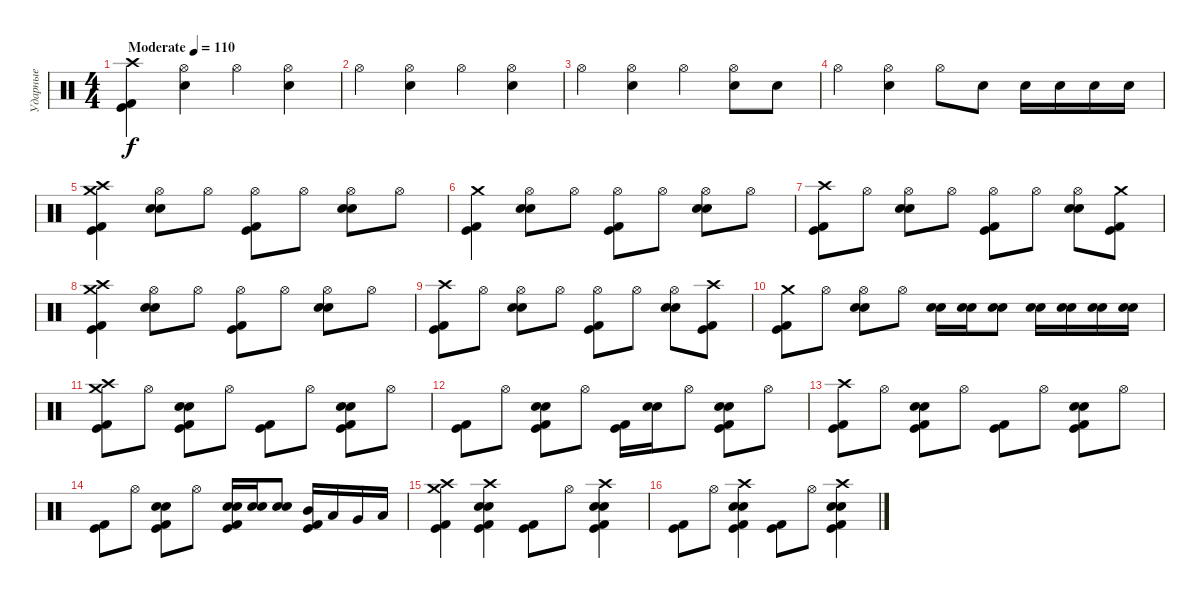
\track ("Ударные" "Ударные") {instrument percussion}
\staff {score}
\articulation defaults
\ts (4 4)
\tempo (110 "Moderate")
\clef neutral
\ks c
("Crash high (hit)" "Kick (hit) 2" "Kick (hit)").4{dy f} ("Hi-Hat (open)" "Electric Snare (hit)").4 "Hi-Hat (open)".4 ("Hi-Hat (open)" "Electric Snare (hit)").4 |
"Hi-Hat (open)".4 ("Hi-Hat (open)" "Electric Snare (hit)").4 "Hi-Hat (open)".4 ("Hi-Hat (open)" "Electric Snare (hit)").4 |
"Hi-Hat (open)".4 ("Hi-Hat (open)" "Electric Snare (hit)").4 "Hi-Hat (open)".4 ("Hi-Hat (open)" "Electric Snare (hit)").8 "Electric Snare (hit)".8 |
"Hi-Hat (open)".4 ("Hi-Hat (open)" "Electric Snare (hit)").4 "Hi-Hat (open)".8 "Electric Snare (hit)".8 "Electric Snare (hit)".16 "Electric Snare (hit)".16 "Electric Snare (hit)".16 "Electric Snare (hit)".16 |
("Crash high (hit)" "Kick (hit) 2" "Kick (hit)" "Crash medium (hit)").4 ("Hi-Hat (open)" "Snare (hit) 2" "Electric Snare (hit)").8 "Hi-Hat (open)".8 ("Hi-Hat (open)" "Kick (hit) 2" "Kick (hit)").8 "Hi-Hat (open)".8 ("Hi-Hat (open)" "Snare (hit) 2" "Electric Snare (hit)").8 "Hi-Hat (open)".8 |
("Crash medium (hit)" "Kick (hit) 2" "Kick (hit)").4 ("Hi-Hat (open)" "Snare (hit) 2" "Electric Snare (hit)").8 "Hi-Hat (open)".8 ("Hi-Hat (open)" "Kick (hit) 2" "Kick (hit)").8 "Hi-Hat (open)".8 ("Hi-Hat (open)" "Snare (hit) 2" "Electric Snare (hit)").8 "Hi-Hat (open)".8 |
("Crash high (hit)" "Kick (hit) 2" "Kick (hit)").8 "Hi-Hat (open)".8 ("Hi-Hat (open)" "Snare (hit) 2" "Electric Snare (hit)").8 "Hi-Hat (open)".8 ("Hi-Hat (open)" "Kick (hit) 2" "Kick (hit)").8 "Hi-Hat (open)".8 ("Hi-Hat (open)" "Snare (hit) 2" "Electric Snare (hit)").8 ("Crash medium (hit)" "Kick (hit)" "Kick (hit) 2").8 |
("Crash high (hit)" "Kick (hit) 2" "Kick (hit)" "Crash medium (hit)").4 ("Hi-Hat (open)" "Snare (hit) 2" "Electric Snare (hit)").8 "Hi-Hat (open)".8 ("Hi-Hat (open)" "Kick (hit) 2" "Kick (hit)").8 "Hi-Hat (open)".8 ("Hi-Hat (open)" "Snare (hit) 2" "Electric Snare (hit)").8 "Hi-Hat (open)".8 |
("Crash high (hit)" "Kick (hit) 2" "Kick (hit)").8 "Hi-Hat (open)".8 ("Hi-Hat (open)" "Snare (hit) 2" "Electric Snare (hit)").8 "Hi-Hat (open)".8 ("Hi-Hat (open)" "Kick (hit) 2" "Kick (hit)").8 "Hi-Hat (open)".8 ("Hi-Hat (open)" "Snare (hit) 2" "Electric Snare (hit)").8 ("Crash high (hit)" "Kick (hit) 2" "Kick (hit)").8 |
("Crash medium (hit)" "Kick (hit) 2" "Kick (hit)").8 "Hi-Hat (open)".8 ("Hi-Hat (open)" "Snare (hit) 2" "Electric Snare (hit)").8 "Hi-Hat (open)".8 ("Snare (hit) 2" "Electric Snare (hit)").16 ("Snare (hit) 2" "Electric Snare (hit)").16 ("Snare (hit) 2" "Electric Snare (hit)").8 ("Snare (hit) 2" "Electric Snare (hit)").16 ("Snare (hit) 2" "Electric Snare (hit)").16 ("Snare (hit) 2" "Electric Snare (hit)").16 ("Snare (hit) 2" "Electric Snare (hit)").16 |
("Crash high (hit)" "Kick (hit) 2" "Crash medium (hit)" "Kick (hit)").8 "Hi-Hat (open)".8 ("Snare (hit) 2" "Electric Snare (hit)" "Kick (hit)" "Kick (hit) 2").8 "Hi-Hat (open)".8 ("Kick (hit) 2" "Kick (hit)").8 "Hi-Hat (open)".8 ("Snare (hit) 2" "Electric Snare (hit)" "Kick (hit)" "Kick (hit) 2").8 "Hi-Hat (open)".8 |
("Kick (hit) 2" "Kick (hit)").8 "Hi-Hat (open)".8 ("Snare (hit) 2" "Electric Snare (hit)" "Kick (hit)" "Kick (hit) 2").8 "Hi-Hat (open)".8 ("Kick (hit) 2" "Kick (hit)").16 ("Snare (hit) 2" "Electric Snare (hit)").16 "Hi-Hat (open)".8 ("Snare (hit) 2" "Electric Snare (hit)" "Kick (hit)" "Kick (hit) 2").8 "Hi-Hat (open)".8 |
("Crash high (hit)" "Kick (hit) 2" "Kick (hit)").8 "Hi-Hat (open)".8 ("Snare (hit) 2" "Electric Snare (hit)" "Kick (hit)" "Kick (hit) 2").8 "Hi-Hat (open)".8 ("Kick (hit) 2" "Kick (hit)").8 "Hi-Hat (open)".8 ("Snare (hit) 2" "Electric Snare (hit)" "Kick (hit)" "Kick (hit) 2").8 "Hi-Hat (open)".8 |
("Kick (hit) 2" "Kick (hit)").8 "Hi-Hat (open)".8 ("Snare (hit) 2" "Electric Snare (hit)" "Kick (hit)" "Kick (hit) 2").8 "Hi-Hat (open)".8 ("Snare (hit) 2" "Electric Snare (hit)" "Kick (hit)" "Kick (hit) 2").16 ("Snare (hit) 2" "Electric Snare (hit)").16 ("Snare (hit) 2" "Electric Snare (hit)").8 ("Mid Tom (hit)" "Kick (hit)" "Kick (hit) 2").16 "Low Tom (hit)".16 "Very Low Tom (hit)".16 "Low Floor Tom (hit)".16 |
("Crash high (hit)" "Kick (hit)" "Kick (hit) 2" "Crash medium (hit)").4 ("Crash high (hit)" "Snare (hit) 2" "Electric Snare (hit)" "Kick (hit)" "Kick (hit) 2").4 ("Kick (hit)" "Kick (hit) 2").8 "Hi-Hat (open)".8 ("Crash high (hit)" "Snare (hit) 2" "Electric Snare (hit)" "Kick (hit)" "Kick (hit) 2").4 |
("Kick (hit)" "Kick (hit) 2").8 "Hi-Hat (open)".8 ("Crash high (hit)" "Snare (hit) 2" "Electric Snare (hit)" "Kick (hit)" "Kick (hit) 2").4 ("Kick (hit)" "Kick (hit) 2").8 "Hi-Hat (open)".8 ("Crash high (hit)" "Snare (hit) 2" "Electric Snare (hit)" "Kick (hit)" "Kick (hit) 2").4
